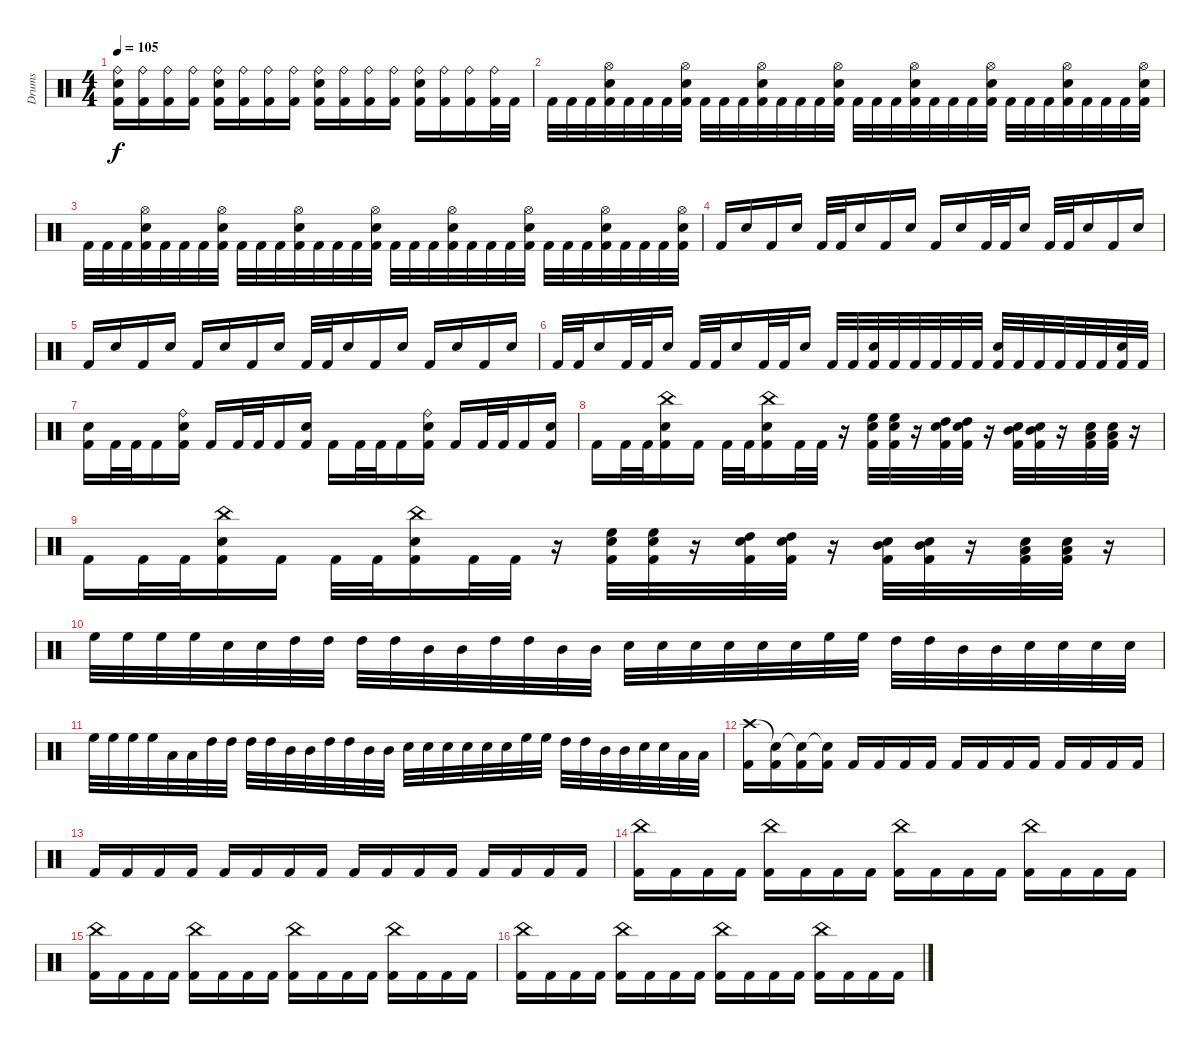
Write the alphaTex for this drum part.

\track ("Drums" "Drums") {instrument percussion}
\staff {score}
\articulation defaults
\ts (4 4)
\tempo 105
\clef neutral
\ks c
("Ride (bell)" "Electric Snare (hit)" "Kick (hit) 2").16{dy f} ("Ride (bell)" "Kick (hit) 2").16 ("Ride (bell)" "Kick (hit) 2").16 ("Ride (bell)" "Kick (hit) 2").16 ("Ride (bell)" "Electric Snare (hit)" "Kick (hit) 2").16 ("Ride (bell)" "Kick (hit) 2").16 ("Ride (bell)" "Kick (hit) 2").16 ("Ride (bell)" "Kick (hit) 2").16 ("Ride (bell)" "Electric Snare (hit)" "Kick (hit) 2").16 ("Ride (bell)" "Kick (hit) 2").16 ("Ride (bell)" "Kick (hit) 2").16 ("Ride (bell)" "Kick (hit) 2").16 ("Ride (bell)" "Electric Snare (hit)" "Kick (hit) 2").16 ("Ride (bell)" "Kick (hit) 2").16 ("Ride (bell)" "Kick (hit) 2").16 ("Ride (bell)" "Kick (hit) 2").32 "Kick (hit) 2".32 |
"Kick (hit) 2".32 "Kick (hit) 2".32 "Kick (hit) 2".32 ("Hi-Hat (open)" "Electric Snare (hit)" "Kick (hit) 2").32 "Kick (hit) 2".32 "Kick (hit) 2".32 "Kick (hit) 2".32 ("Hi-Hat (open)" "Electric Snare (hit)" "Kick (hit) 2").32 "Kick (hit) 2".32 "Kick (hit) 2".32 "Kick (hit) 2".32 ("Hi-Hat (open)" "Electric Snare (hit)" "Kick (hit) 2").32 "Kick (hit) 2".32 "Kick (hit) 2".32 "Kick (hit) 2".32 ("Hi-Hat (open)" "Electric Snare (hit)" "Kick (hit) 2").32 "Kick (hit) 2".32 "Kick (hit) 2".32 "Kick (hit) 2".32 ("Hi-Hat (open)" "Electric Snare (hit)" "Kick (hit) 2").32 "Kick (hit) 2".32 "Kick (hit) 2".32 "Kick (hit) 2".32 ("Hi-Hat (open)" "Electric Snare (hit)" "Kick (hit) 2").32 "Kick (hit) 2".32 "Kick (hit) 2".32 "Kick (hit) 2".32 ("Hi-Hat (open)" "Electric Snare (hit)" "Kick (hit) 2").32 "Kick (hit) 2".32 "Kick (hit) 2".32 "Kick (hit) 2".32 ("Hi-Hat (open)" "Electric Snare (hit)" "Kick (hit) 2").32 |
"Kick (hit) 2".32 "Kick (hit) 2".32 "Kick (hit) 2".32 ("Hi-Hat (open)" "Electric Snare (hit)" "Kick (hit) 2").32 "Kick (hit) 2".32 "Kick (hit) 2".32 "Kick (hit) 2".32 ("Hi-Hat (open)" "Electric Snare (hit)" "Kick (hit) 2").32 "Kick (hit) 2".32 "Kick (hit) 2".32 "Kick (hit) 2".32 ("Hi-Hat (open)" "Electric Snare (hit)" "Kick (hit) 2").32 "Kick (hit) 2".32 "Kick (hit) 2".32 "Kick (hit) 2".32 ("Hi-Hat (open)" "Electric Snare (hit)" "Kick (hit) 2").32 "Kick (hit) 2".32 "Kick (hit) 2".32 "Kick (hit) 2".32 ("Hi-Hat (open)" "Electric Snare (hit)" "Kick (hit) 2").32 "Kick (hit) 2".32 "Kick (hit) 2".32 "Kick (hit) 2".32 ("Hi-Hat (open)" "Electric Snare (hit)" "Kick (hit) 2").32 "Kick (hit) 2".32 "Kick (hit) 2".32 "Kick (hit) 2".32 ("Hi-Hat (open)" "Electric Snare (hit)" "Kick (hit) 2").32 "Kick (hit) 2".32 "Kick (hit) 2".32 "Kick (hit) 2".32 ("Hi-Hat (open)" "Electric Snare (hit)" "Kick (hit) 2").32 |
"Kick (hit) 2".16 "Electric Snare (hit)".16 "Kick (hit) 2".16 "Electric Snare (hit)".16 "Kick (hit) 2".32 "Kick (hit) 2".32 "Electric Snare (hit)".16 "Kick (hit) 2".16 "Electric Snare (hit)".16 "Kick (hit) 2".16 "Electric Snare (hit)".16 "Kick (hit) 2".32 "Kick (hit) 2".32 "Electric Snare (hit)".16 "Kick (hit) 2".32 "Kick (hit) 2".32 "Electric Snare (hit)".16 "Kick (hit) 2".16 "Electric Snare (hit)".16 |
"Kick (hit) 2".16 "Electric Snare (hit)".16 "Kick (hit) 2".16 "Electric Snare (hit)".16 "Kick (hit) 2".16 "Electric Snare (hit)".16 "Kick (hit) 2".16 "Electric Snare (hit)".16 "Kick (hit) 2".32 "Kick (hit) 2".32 "Electric Snare (hit)".16 "Kick (hit) 2".16 "Electric Snare (hit)".16 "Kick (hit) 2".16 "Electric Snare (hit)".16 "Kick (hit) 2".16 "Electric Snare (hit)".16 |
"Kick (hit) 2".32 "Kick (hit) 2".32 "Electric Snare (hit)".16 "Kick (hit) 2".32 "Kick (hit) 2".32 "Electric Snare (hit)".16 "Kick (hit) 2".32 "Kick (hit) 2".32 "Electric Snare (hit)".16 "Kick (hit) 2".32 "Kick (hit) 2".32 "Electric Snare (hit)".16 "Kick (hit) 2".32 "Kick (hit) 2".32 ("Electric Snare (hit)" "Kick (hit) 2").32 "Kick (hit) 2".32 "Kick (hit) 2".32 "Kick (hit) 2".32 "Kick (hit) 2".32 "Kick (hit) 2".32 ("Electric Snare (hit)" "Kick (hit) 2").32 "Kick (hit) 2".32 "Kick (hit) 2".32 "Kick (hit) 2".32 "Kick (hit) 2".32 "Kick (hit) 2".32 ("Electric Snare (hit)" "Kick (hit) 2").32 "Kick (hit) 2".32 |
("Electric Snare (hit)" "Kick (hit) 2").16 "Kick (hit) 2".32 "Kick (hit) 2".32 "Kick (hit) 2".16 ("Ride (bell)" "Electric Snare (hit)" "Kick (hit) 2").16 "Kick (hit) 2".16 "Kick (hit) 2".32 "Kick (hit) 2".32 "Kick (hit) 2".16 ("Electric Snare (hit)" "Kick (hit) 2").16 "Kick (hit) 2".16 "Kick (hit) 2".32 "Kick (hit) 2".32 "Kick (hit) 2".16 ("Ride (bell)" "Electric Snare (hit)" "Kick (hit) 2").16 "Kick (hit) 2".16 "Kick (hit) 2".32 "Kick (hit) 2".32 "Kick (hit) 2".16 ("Electric Snare (hit)" "Kick (hit) 2").16 |
"Kick (hit) 2".16 "Kick (hit) 2".32 "Kick (hit) 2".32 ("China (hit)" "Electric Snare (hit)" "Kick (hit) 2").16 "Kick (hit) 2".16 "Kick (hit) 2".32 "Kick (hit) 2".32 ("China (hit)" "Electric Snare (hit)" "Kick (hit) 2").16 "Kick (hit) 2".32 "Kick (hit) 2".32 r.16 ("High Floor Tom (hit)" "Electric Snare (hit)" "Kick (hit) 2").32 ("High Floor Tom (hit)" "Electric Snare (hit)" "Kick (hit) 2").32 r.16 ("High Tom (hit)" "Electric Snare (hit)" "Kick (hit) 2").32 ("High Tom (hit)" "Electric Snare (hit)" "Kick (hit) 2").32 r.16 ("Mid Tom (hit)" "Electric Snare (hit)" "Kick (hit) 2").32 ("Mid Tom (hit)" "Electric Snare (hit)" "Kick (hit) 2").32 r.16 ("Low Floor Tom (hit)" "Electric Snare (hit)" "Kick (hit) 2").32 ("Low Floor Tom (hit)" "Electric Snare (hit)" "Kick (hit) 2").32 r.16 |
"Kick (hit) 2".16 "Kick (hit) 2".32 "Kick (hit) 2".32 ("China (hit)" "Electric Snare (hit)" "Kick (hit) 2").16 "Kick (hit) 2".16 "Kick (hit) 2".32 "Kick (hit) 2".32 ("China (hit)" "Electric Snare (hit)" "Kick (hit) 2").16 "Kick (hit) 2".32 "Kick (hit) 2".32 r.16 ("High Floor Tom (hit)" "Electric Snare (hit)" "Kick (hit) 2").32 ("High Floor Tom (hit)" "Electric Snare (hit)" "Kick (hit) 2").32 r.16 ("High Tom (hit)" "Electric Snare (hit)" "Kick (hit) 2").32 ("High Tom (hit)" "Electric Snare (hit)" "Kick (hit) 2").32 r.16 ("Mid Tom (hit)" "Electric Snare (hit)" "Kick (hit) 2").32 ("Mid Tom (hit)" "Electric Snare (hit)" "Kick (hit) 2").32 r.16 ("Low Floor Tom (hit)" "Electric Snare (hit)" "Kick (hit) 2").32 ("Low Floor Tom (hit)" "Electric Snare (hit)" "Kick (hit) 2").32 r.16 |
"High Floor Tom (hit)".32 "High Floor Tom (hit)".32 "High Floor Tom (hit)".32 "High Floor Tom (hit)".32 "Electric Snare (hit)".32 "Electric Snare (hit)".32 "High Tom (hit)".32 "High Tom (hit)".32 "High Tom (hit)".32 "High Tom (hit)".32 "Mid Tom (hit)".32 "Mid Tom (hit)".32 "High Tom (hit)".32 "High Tom (hit)".32 "Mid Tom (hit)".32 "Mid Tom (hit)".32 "Electric Snare (hit)".32 "Electric Snare (hit)".32 "Electric Snare (hit)".32 "Electric Snare (hit)".32 "Electric Snare (hit)".32 "Electric Snare (hit)".32 "High Floor Tom (hit)".32 "High Floor Tom (hit)".32 "High Tom (hit)".32 "High Tom (hit)".32 "Mid Tom (hit)".32 "Mid Tom (hit)".32 "Electric Snare (hit)".32 "Electric Snare (hit)".32 "Electric Snare (hit)".32 "Electric Snare (hit)".32 |
"High Floor Tom (hit)".32 "High Floor Tom (hit)".32 "High Floor Tom (hit)".32 "High Floor Tom (hit)".32 "Low Tom (hit)".32 "Low Tom (hit)".32 "High Tom (hit)".32 "High Tom (hit)".32 "High Tom (hit)".32 "High Tom (hit)".32 "Mid Tom (hit)".32 "Mid Tom (hit)".32 "High Tom (hit)".32 "High Tom (hit)".32 "Mid Tom (hit)".32 "Mid Tom (hit)".32 "Electric Snare (hit)".32 "Electric Snare (hit)".32 "Electric Snare (hit)".32 "Electric Snare (hit)".32 "Electric Snare (hit)".32 "Electric Snare (hit)".32 "High Floor Tom (hit)".32 "High Floor Tom (hit)".32 "High Tom (hit)".32 "High Tom (hit)".32 "Mid Tom (hit)".32 "Mid Tom (hit)".32 "Electric Snare (hit)".32 "Electric Snare (hit)".32 "Low Floor Tom (hit)".32 "Low Floor Tom (hit)".32 |
("Crash high (hit)" "Kick (hit) 2").16 ("Snare (hit)"{t} "Kick (hit) 2").16 ("Snare (hit)"{t} "Kick (hit) 2").16 ("Snare (hit)"{t} "Kick (hit) 2").16 "Kick (hit) 2".16 "Kick (hit) 2".16 "Kick (hit) 2".16 "Kick (hit) 2".16 "Kick (hit) 2".16 "Kick (hit) 2".16 "Kick (hit) 2".16 "Kick (hit) 2".16 "Kick (hit) 2".16 "Kick (hit) 2".16 "Kick (hit) 2".16 "Kick (hit) 2".16 |
"Kick (hit) 2".16 "Kick (hit) 2".16 "Kick (hit) 2".16 "Kick (hit) 2".16 "Kick (hit) 2".16 "Kick (hit) 2".16 "Kick (hit) 2".16 "Kick (hit) 2".16 "Kick (hit) 2".16 "Kick (hit) 2".16 "Kick (hit) 2".16 "Kick (hit) 2".16 "Kick (hit) 2".16 "Kick (hit) 2".16 "Kick (hit) 2".16 "Kick (hit) 2".16 |
("China (hit)" "Kick (hit) 2").16 "Kick (hit) 2".16 "Kick (hit) 2".16 "Kick (hit) 2".16 ("China (hit)" "Kick (hit) 2").16 "Kick (hit) 2".16 "Kick (hit) 2".16 "Kick (hit) 2".16 ("China (hit)" "Kick (hit) 2").16 "Kick (hit) 2".16 "Kick (hit) 2".16 "Kick (hit) 2".16 ("China (hit)" "Kick (hit) 2").16 "Kick (hit) 2".16 "Kick (hit) 2".16 "Kick (hit) 2".16 |
("China (hit)" "Kick (hit) 2").16 "Kick (hit) 2".16 "Kick (hit) 2".16 "Kick (hit) 2".16 ("China (hit)" "Kick (hit) 2").16 "Kick (hit) 2".16 "Kick (hit) 2".16 "Kick (hit) 2".16 ("China (hit)" "Kick (hit) 2").16 "Kick (hit) 2".16 "Kick (hit) 2".16 "Kick (hit) 2".16 ("China (hit)" "Kick (hit) 2").16 "Kick (hit) 2".16 "Kick (hit) 2".16 "Kick (hit) 2".16 |
("China (hit)" "Kick (hit) 2").16 "Kick (hit) 2".16 "Kick (hit) 2".16 "Kick (hit) 2".16 ("China (hit)" "Kick (hit) 2").16 "Kick (hit) 2".16 "Kick (hit) 2".16 "Kick (hit) 2".16 ("China (hit)" "Kick (hit) 2").16 "Kick (hit) 2".16 "Kick (hit) 2".16 "Kick (hit) 2".16 ("China (hit)" "Kick (hit) 2").16 "Kick (hit) 2".16 "Kick (hit) 2".16 "Kick (hit) 2".16
